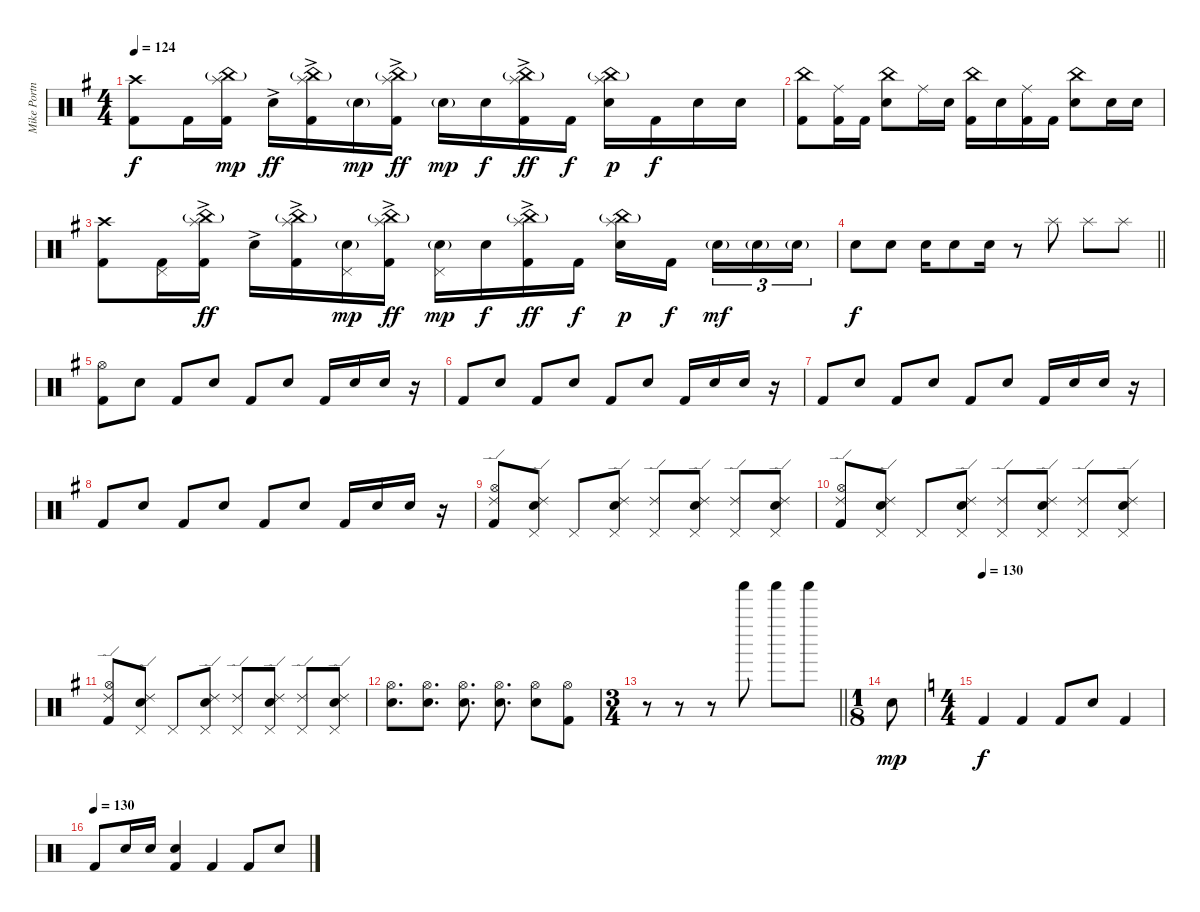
\track ("Mike Portnoy - Drums" "Mike Portn") {instrument percussion}
\staff {score}
\articulation defaults
\ts (4 4)
\tempo 124
\clef neutral
\ks g
("Crash high (hit)" "Kick (hit) 2").8{dy f} "Kick (hit) 2".16 ("China (hit)"{g} "Splash (hit)" "Kick (hit) 2").16{dy mp} "Electric Snare (hit)"{ac}.16{dy ff} ("China (hit)"{g} "Splash (hit)"{ac} "Kick (hit) 2"{ac}).16 "Electric Snare (hit)"{g}.16{dy mp} ("China (hit)"{g} "Splash (hit)"{ac} "Kick (hit) 2"{ac}).16{dy ff} "Electric Snare (hit)"{g}.16{dy mp} "Electric Snare (hit)".16{dy f} ("China (hit)"{g} "Splash (hit)"{ac} "Kick (hit) 2"{ac}).16{dy ff} "Kick (hit) 2".16{dy f} ("China (hit)"{g} "Splash (hit)" "Electric Snare (hit)").16{dy p} "Kick (hit) 2".16{dy f} "Electric Snare (hit)".16 "Electric Snare (hit)".16 |
("China (hit)" "Kick (hit) 2").8 ("Ride (middle)" "Kick (hit) 2").16 "Kick (hit) 2".16 ("China (hit)" "Electric Snare (hit)").8 "Ride (middle)".16 "Electric Snare (hit)".16 ("China (hit)" "Kick (hit) 2").16 "Electric Snare (hit)".16 ("Ride (middle)" "Kick (hit) 2").16 "Kick (hit) 2".16 ("China (hit)" "Electric Snare (hit)").8 "Electric Snare (hit)".16 "Electric Snare (hit)".16 |
("Crash high (hit)" "Kick (hit) 2").8 ("Pedal Hi-Hat (hit)" "Kick (hit) 2").16 ("China (hit)"{g} "Splash (hit)"{ac} "Kick (hit) 2"{ac}).16{dy ff} "Electric Snare (hit)"{ac}.16 ("China (hit)"{g} "Splash (hit)"{ac} "Kick (hit) 2"{ac}).16 ("Electric Snare (hit)"{g} "Pedal Hi-Hat (hit)").16{dy mp} ("China (hit)"{g} "Splash (hit)"{ac} "Kick (hit) 2"{ac}).16{dy ff} ("Electric Snare (hit)"{g} "Pedal Hi-Hat (hit)").16{dy mp} "Electric Snare (hit)".16{dy f} ("China (hit)"{g} "Splash (hit)"{ac} "Kick (hit) 2"{ac}).16{dy ff} "Kick (hit) 2".16{dy f} ("China (hit)"{g} "Splash (hit)" "Electric Snare (hit)").16{dy p} "Kick (hit) 2".16{dy f beam splitsecondary} "Electric Snare (hit)"{g}.16{tu (3 2) dy mf} "Electric Snare (hit)"{g}.16{tu (3 2)} "Electric Snare (hit)"{g}.16{tu (3 2)} |
\barLineRight lightlight "Electric Snare (hit)".8{dy f} "Electric Snare (hit)".8 "Electric Snare (hit)".16 "Electric Snare (hit)".8 "Electric Snare (hit)".16
r.8 "Splash (hit)".8 "Splash (hit)".8 "Splash (hit)".8 |
("Kick (hit) 2" "Hi-Hat (open)").8 "Snare (hit) 2".8 "Kick (hit) 2".8 "Snare (hit) 2".8 "Kick (hit) 2".8 "Snare (hit) 2".8 "Kick (hit) 2".16 "Snare (hit) 2".16 "Snare (hit) 2".16 r.16 |
"Kick (hit) 2".8 "Snare (hit) 2".8 "Kick (hit) 2".8 "Snare (hit) 2".8 "Kick (hit) 2".8 "Snare (hit) 2".8 "Kick (hit) 2".16 "Snare (hit) 2".16 "Snare (hit) 2".16 r.16 |
"Kick (hit) 2".8 "Snare (hit) 2".8 "Kick (hit) 2".8 "Snare (hit) 2".8 "Kick (hit) 2".8 "Snare (hit) 2".8 "Kick (hit) 2".16 "Snare (hit) 2".16 "Snare (hit) 2".16 r.16 |
"Kick (hit) 2".8 "Snare (hit) 2".8 "Kick (hit) 2".8 "Snare (hit) 2".8 "Kick (hit) 2".8 "Snare (hit) 2".8 "Kick (hit) 2".16 "Snare (hit) 2".16 "Snare (hit) 2".16 r.16 |
("Ride (edge) 2" "Kick (hit) 2" "Hi-Hat (open)").8 ("Pedal Hi-Hat (hit)" "Ride (edge) 2" "Snare (hit) 2").8 "Pedal Hi-Hat (hit)".8 ("Pedal Hi-Hat (hit)" "Ride (edge) 2" "Snare (hit) 2").8 ("Pedal Hi-Hat (hit)" "Ride (edge) 2").8 ("Pedal Hi-Hat (hit)" "Ride (edge) 2" "Snare (hit) 2").8 ("Pedal Hi-Hat (hit)" "Ride (edge) 2").8 ("Snare (hit) 2" "Pedal Hi-Hat (hit)" "Ride (edge) 2").8 |
("Ride (edge) 2" "Kick (hit) 2" "Hi-Hat (open)").8 ("Pedal Hi-Hat (hit)" "Ride (edge) 2" "Snare (hit) 2").8 "Pedal Hi-Hat (hit)".8 ("Pedal Hi-Hat (hit)" "Ride (edge) 2" "Snare (hit) 2").8 ("Pedal Hi-Hat (hit)" "Ride (edge) 2").8 ("Pedal Hi-Hat (hit)" "Ride (edge) 2" "Snare (hit) 2").8 ("Pedal Hi-Hat (hit)" "Ride (edge) 2").8 ("Snare (hit) 2" "Pedal Hi-Hat (hit)" "Ride (edge) 2").8 |
("Ride (edge) 2" "Kick (hit) 2" "Hi-Hat (open)").8 ("Pedal Hi-Hat (hit)" "Ride (edge) 2" "Snare (hit) 2").8 "Pedal Hi-Hat (hit)".8 ("Pedal Hi-Hat (hit)" "Ride (edge) 2" "Snare (hit) 2").8 ("Pedal Hi-Hat (hit)" "Ride (edge) 2").8 ("Pedal Hi-Hat (hit)" "Ride (edge) 2" "Snare (hit) 2").8 ("Pedal Hi-Hat (hit)" "Ride (edge) 2").8 ("Snare (hit) 2" "Pedal Hi-Hat (hit)" "Ride (edge) 2").8 |
("Snare (hit) 2" "Hi-Hat (open)").8{d} ("Hi-Hat (open)" "Snare (hit) 2").8{d} ("Hi-Hat (open)" "Snare (hit) 2").8{d} ("Hi-Hat (open)" "Snare (hit) 2").8{d} ("Hi-Hat (open)" "Snare (hit) 2").8 ("Kick (hit) 2" "Hi-Hat (open)").8 |
\ts (3 4)
\barLineRight lightlight
r.8 r.8 r.8 "Shaker (hit)".8 "Shaker (hit)".8 "Shaker (hit)".8 |
\ts (1 8)
"Electric Snare (hit)".8{dy mp} |
\ts (4 4)
\tempo 130
\ks c "Kick (hit) 2".4{dy f} "Kick (hit) 2".4 "Kick (hit) 2".8 "Electric Snare (hit)".8 "Kick (hit) 2".4
|
\tempo (130)
"Kick (hit) 2".8 "Electric Snare (hit)".16 "Electric Snare (hit)".16 ("Electric Snare (hit)" "Kick (hit) 2").4 "Kick (hit) 2".4 "Kick (hit) 2".8 "Electric Snare (hit)".8
